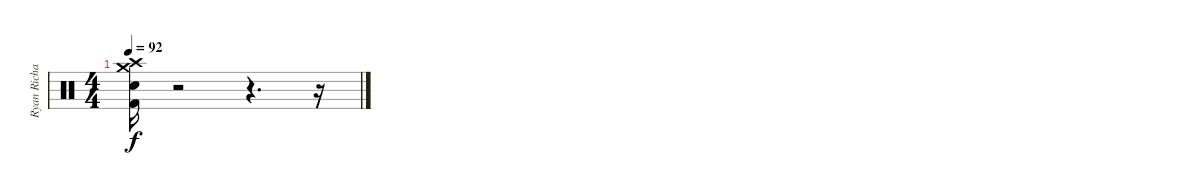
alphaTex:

\track ("Ryan Richards" "Ryan Richa") {instrument percussion}
\staff {score}
\articulation defaults
\ts (4 4)
\tempo 92
\clef neutral
\ks c
("Crash high (hit)" "Crash medium (hit)" "Snare (hit) 2" "Kick (hit) 2").16{dy f} r.2 r.4{d} r.16
